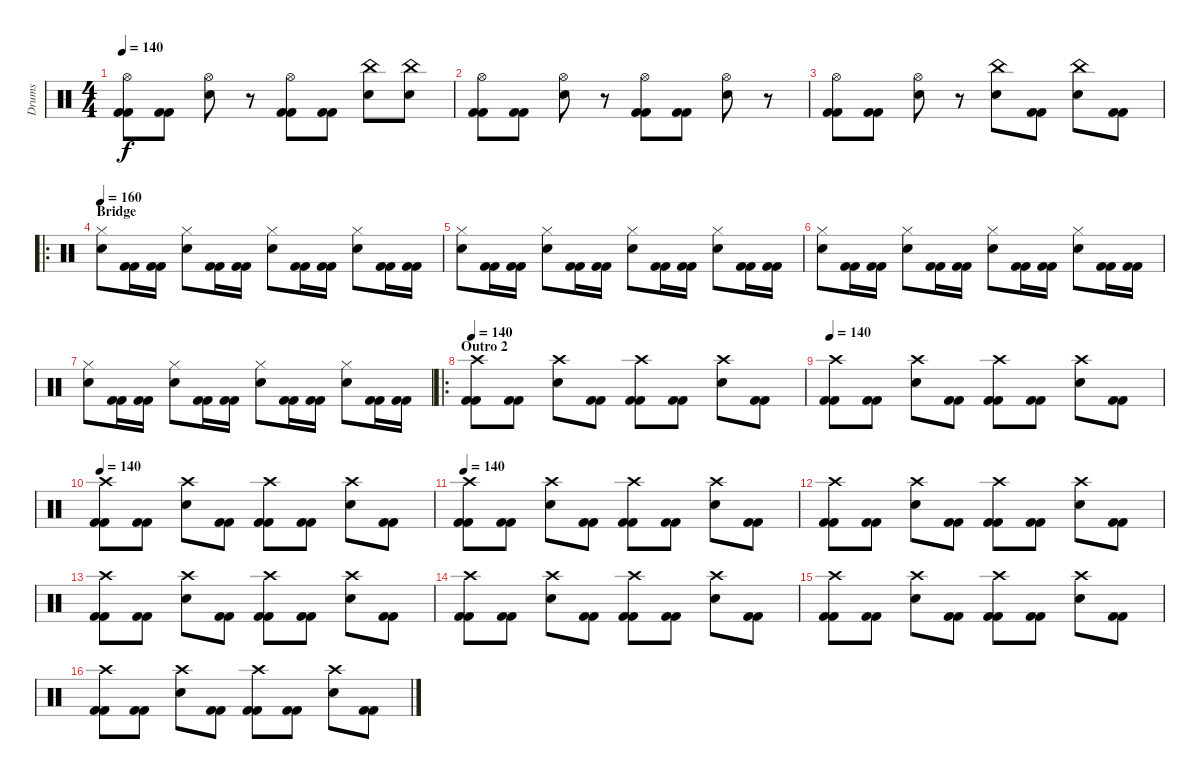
\track ("Drums" "Drums") {instrument percussion}
\staff {score}
\articulation defaults
\ts (4 4)
\tempo 140
\clef neutral
\ks c
("Kick (hit) 2" "Kick (hit) 2" "Hi-Hat (open)").8{dy f} ("Kick (hit) 2" "Kick (hit) 2").8 ("Electric Snare (hit)" "Hi-Hat (open)").8 r.8 ("Kick (hit) 2" "Kick (hit) 2" "Hi-Hat (open)").8 ("Kick (hit) 2" "Kick (hit) 2").8 ("China (hit)" "Electric Snare (hit)").8 ("Electric Snare (hit)" "China (hit)").8 |
("Kick (hit) 2" "Kick (hit) 2" "Hi-Hat (open)").8 ("Kick (hit) 2" "Kick (hit) 2").8 ("Electric Snare (hit)" "Hi-Hat (open)").8 r.8 ("Kick (hit) 2" "Kick (hit) 2" "Hi-Hat (open)").8 ("Kick (hit) 2" "Kick (hit) 2").8 ("Hi-Hat (open)" "Electric Snare (hit)").8 r.8 |
("Kick (hit) 2" "Kick (hit) 2" "Hi-Hat (open)").8 ("Kick (hit) 2" "Kick (hit) 2").8 ("Electric Snare (hit)" "Hi-Hat (open)").8 r.8 ("China (hit)" "Electric Snare (hit)").8 ("Kick (hit) 2" "Kick (hit) 2").8 ("China (hit)" "Electric Snare (hit)").8 ("Kick (hit) 2" "Kick (hit) 2").8 |
\ro
\section ("" "Bridge")
\tempo 160
("Hi-Hat (closed)" "Electric Snare (hit)").8 ("Kick (hit) 2" "Kick (hit) 2").16 ("Kick (hit) 2" "Kick (hit) 2").16 ("Hi-Hat (closed)" "Electric Snare (hit)").8 ("Kick (hit) 2" "Kick (hit) 2").16 ("Kick (hit) 2" "Kick (hit) 2").16 ("Electric Snare (hit)" "Hi-Hat (closed)").8 ("Kick (hit) 2" "Kick (hit) 2").16 ("Kick (hit) 2" "Kick (hit) 2").16 ("Electric Snare (hit)" "Hi-Hat (closed)").8 ("Kick (hit) 2" "Kick (hit) 2").16 ("Kick (hit) 2" "Kick (hit) 2").16 |
("Hi-Hat (closed)" "Electric Snare (hit)").8 ("Kick (hit) 2" "Kick (hit) 2").16 ("Kick (hit) 2" "Kick (hit) 2").16 ("Hi-Hat (closed)" "Electric Snare (hit)").8 ("Kick (hit) 2" "Kick (hit) 2").16 ("Kick (hit) 2" "Kick (hit) 2").16 ("Electric Snare (hit)" "Hi-Hat (closed)").8 ("Kick (hit) 2" "Kick (hit) 2").16 ("Kick (hit) 2" "Kick (hit) 2").16 ("Electric Snare (hit)" "Hi-Hat (closed)").8 ("Kick (hit) 2" "Kick (hit) 2").16 ("Kick (hit) 2" "Kick (hit) 2").16 |
("Hi-Hat (closed)" "Electric Snare (hit)").8 ("Kick (hit) 2" "Kick (hit) 2").16 ("Kick (hit) 2" "Kick (hit) 2").16 ("Hi-Hat (closed)" "Electric Snare (hit)").8 ("Kick (hit) 2" "Kick (hit) 2").16 ("Kick (hit) 2" "Kick (hit) 2").16 ("Electric Snare (hit)" "Hi-Hat (closed)").8 ("Kick (hit) 2" "Kick (hit) 2").16 ("Kick (hit) 2" "Kick (hit) 2").16 ("Electric Snare (hit)" "Hi-Hat (closed)").8 ("Kick (hit) 2" "Kick (hit) 2").16 ("Kick (hit) 2" "Kick (hit) 2").16 |
("Hi-Hat (closed)" "Electric Snare (hit)").8 ("Kick (hit) 2" "Kick (hit) 2").16 ("Kick (hit) 2" "Kick (hit) 2").16 ("Hi-Hat (closed)" "Electric Snare (hit)").8 ("Kick (hit) 2" "Kick (hit) 2").16 ("Kick (hit) 2" "Kick (hit) 2").16 ("Electric Snare (hit)" "Hi-Hat (closed)").8 ("Kick (hit) 2" "Kick (hit) 2").16 ("Kick (hit) 2" "Kick (hit) 2").16 ("Electric Snare (hit)" "Hi-Hat (closed)").8 ("Kick (hit) 2" "Kick (hit) 2").16 ("Kick (hit) 2" "Kick (hit) 2").16 |
\ro
\section ("" "Outro 2")
\tempo 140
("Kick (hit) 2" "Kick (hit) 2" "Crash high (hit)").8 ("Kick (hit) 2" "Kick (hit) 2").8 ("Electric Snare (hit)" "Crash high (hit)").8 ("Kick (hit) 2" "Kick (hit) 2").8 ("Kick (hit) 2" "Kick (hit) 2" "Crash high (hit)").8 ("Kick (hit) 2" "Kick (hit) 2").8 ("Crash high (hit)" "Electric Snare (hit)").8 ("Kick (hit) 2" "Kick (hit) 2").8 |
\tempo 140
("Kick (hit) 2" "Kick (hit) 2" "Crash high (hit)").8 ("Kick (hit) 2" "Kick (hit) 2").8 ("Electric Snare (hit)" "Crash high (hit)").8 ("Kick (hit) 2" "Kick (hit) 2").8 ("Kick (hit) 2" "Kick (hit) 2" "Crash high (hit)").8 ("Kick (hit) 2" "Kick (hit) 2").8 ("Crash high (hit)" "Electric Snare (hit)").8 ("Kick (hit) 2" "Kick (hit) 2").8 |
\tempo 140
("Kick (hit) 2" "Kick (hit) 2" "Crash high (hit)").8 ("Kick (hit) 2" "Kick (hit) 2").8 ("Electric Snare (hit)" "Crash high (hit)").8 ("Kick (hit) 2" "Kick (hit) 2").8 ("Kick (hit) 2" "Kick (hit) 2" "Crash high (hit)").8 ("Kick (hit) 2" "Kick (hit) 2").8 ("Crash high (hit)" "Electric Snare (hit)").8 ("Kick (hit) 2" "Kick (hit) 2").8 |
\tempo 140
("Kick (hit) 2" "Kick (hit) 2" "Crash high (hit)").8 ("Kick (hit) 2" "Kick (hit) 2").8 ("Electric Snare (hit)" "Crash high (hit)").8 ("Kick (hit) 2" "Kick (hit) 2").8 ("Kick (hit) 2" "Kick (hit) 2" "Crash high (hit)").8 ("Kick (hit) 2" "Kick (hit) 2").8 ("Crash high (hit)" "Electric Snare (hit)").8 ("Kick (hit) 2" "Kick (hit) 2").8 |
("Kick (hit) 2" "Kick (hit) 2" "Crash high (hit)").8 ("Kick (hit) 2" "Kick (hit) 2").8 ("Electric Snare (hit)" "Crash high (hit)").8 ("Kick (hit) 2" "Kick (hit) 2").8 ("Kick (hit) 2" "Kick (hit) 2" "Crash high (hit)").8 ("Kick (hit) 2" "Kick (hit) 2").8 ("Crash high (hit)" "Electric Snare (hit)").8 ("Kick (hit) 2" "Kick (hit) 2").8 |
("Kick (hit) 2" "Kick (hit) 2" "Crash high (hit)").8 ("Kick (hit) 2" "Kick (hit) 2").8 ("Electric Snare (hit)" "Crash high (hit)").8 ("Kick (hit) 2" "Kick (hit) 2").8 ("Kick (hit) 2" "Kick (hit) 2" "Crash high (hit)").8 ("Kick (hit) 2" "Kick (hit) 2").8 ("Crash high (hit)" "Electric Snare (hit)").8 ("Kick (hit) 2" "Kick (hit) 2").8 |
("Kick (hit) 2" "Kick (hit) 2" "Crash high (hit)").8 ("Kick (hit) 2" "Kick (hit) 2").8 ("Electric Snare (hit)" "Crash high (hit)").8 ("Kick (hit) 2" "Kick (hit) 2").8 ("Kick (hit) 2" "Kick (hit) 2" "Crash high (hit)").8 ("Kick (hit) 2" "Kick (hit) 2").8 ("Crash high (hit)" "Electric Snare (hit)").8 ("Kick (hit) 2" "Kick (hit) 2").8 |
("Kick (hit) 2" "Kick (hit) 2" "Crash high (hit)").8 ("Kick (hit) 2" "Kick (hit) 2").8 ("Electric Snare (hit)" "Crash high (hit)").8 ("Kick (hit) 2" "Kick (hit) 2").8 ("Kick (hit) 2" "Kick (hit) 2" "Crash high (hit)").8 ("Kick (hit) 2" "Kick (hit) 2").8 ("Crash high (hit)" "Electric Snare (hit)").8 ("Kick (hit) 2" "Kick (hit) 2").8 |
("Kick (hit) 2" "Kick (hit) 2" "Crash high (hit)").8 ("Kick (hit) 2" "Kick (hit) 2").8 ("Electric Snare (hit)" "Crash high (hit)").8 ("Kick (hit) 2" "Kick (hit) 2").8 ("Kick (hit) 2" "Kick (hit) 2" "Crash high (hit)").8 ("Kick (hit) 2" "Kick (hit) 2").8 ("Crash high (hit)" "Electric Snare (hit)").8 ("Kick (hit) 2" "Kick (hit) 2").8
